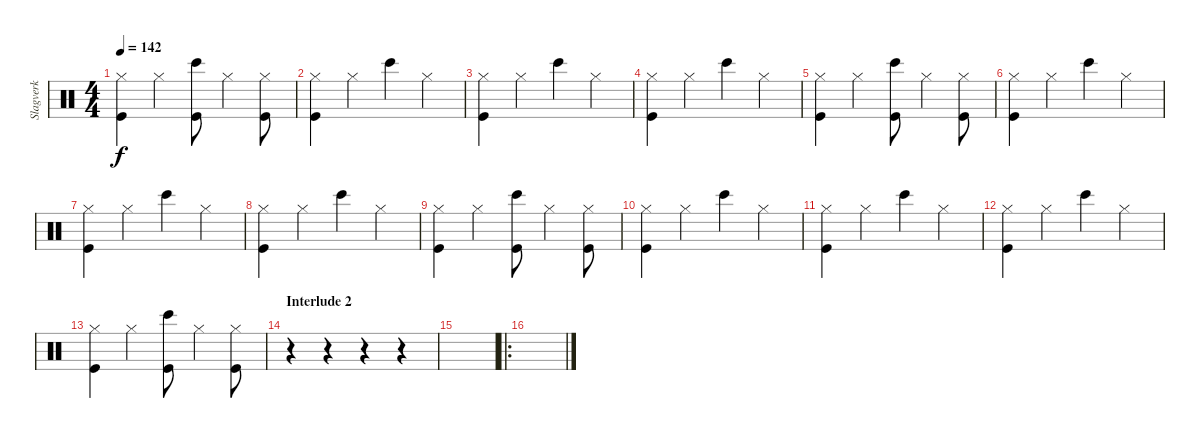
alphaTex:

\track ("Slagverk" "Slagverk") {instrument percussion}
\staff {score}
\articulation defaults
\ts (4 4)
\tempo 142
\clef neutral
\ks c
("Hi-Hat (closed)" "Kick (hit)").4{dy f} "Hi-Hat (closed)".4 ("Bongo High (hit)" "Kick (hit)").8 "Hi-Hat (closed)".4 ("Hi-Hat (closed)" "Kick (hit)").8 |
("Hi-Hat (closed)" "Kick (hit)").4 "Hi-Hat (closed)".4 "Bongo High (hit)".4 "Hi-Hat (closed)".4 |
("Hi-Hat (closed)" "Kick (hit)").4 "Hi-Hat (closed)".4 "Bongo High (hit)".4 "Hi-Hat (closed)".4 |
("Hi-Hat (closed)" "Kick (hit)").4 "Hi-Hat (closed)".4 "Bongo High (hit)".4 "Hi-Hat (closed)".4 |
("Hi-Hat (closed)" "Kick (hit)").4 "Hi-Hat (closed)".4 ("Bongo High (hit)" "Kick (hit)").8 "Hi-Hat (closed)".4 ("Hi-Hat (closed)" "Kick (hit)").8 |
("Hi-Hat (closed)" "Kick (hit)").4 "Hi-Hat (closed)".4 "Bongo High (hit)".4 "Hi-Hat (closed)".4 |
("Hi-Hat (closed)" "Kick (hit)").4 "Hi-Hat (closed)".4 "Bongo High (hit)".4 "Hi-Hat (closed)".4 |
("Hi-Hat (closed)" "Kick (hit)").4 "Hi-Hat (closed)".4 "Bongo High (hit)".4 "Hi-Hat (closed)".4 |
("Hi-Hat (closed)" "Kick (hit)").4 "Hi-Hat (closed)".4 ("Bongo High (hit)" "Kick (hit)").8 "Hi-Hat (closed)".4 ("Hi-Hat (closed)" "Kick (hit)").8 |
("Hi-Hat (closed)" "Kick (hit)").4 "Hi-Hat (closed)".4 "Bongo High (hit)".4 "Hi-Hat (closed)".4 |
("Hi-Hat (closed)" "Kick (hit)").4 "Hi-Hat (closed)".4 "Bongo High (hit)".4 "Hi-Hat (closed)".4 |
("Hi-Hat (closed)" "Kick (hit)").4 "Hi-Hat (closed)".4 "Bongo High (hit)".4 "Hi-Hat (closed)".4 |
("Hi-Hat (closed)" "Kick (hit)").4 "Hi-Hat (closed)".4 ("Bongo High (hit)" "Kick (hit)").8 "Hi-Hat (closed)".4 ("Hi-Hat (closed)" "Kick (hit)").8 |
\section ("" "Interlude 2")
r.4 r.4 r.4 r.4 |
|
\ro
